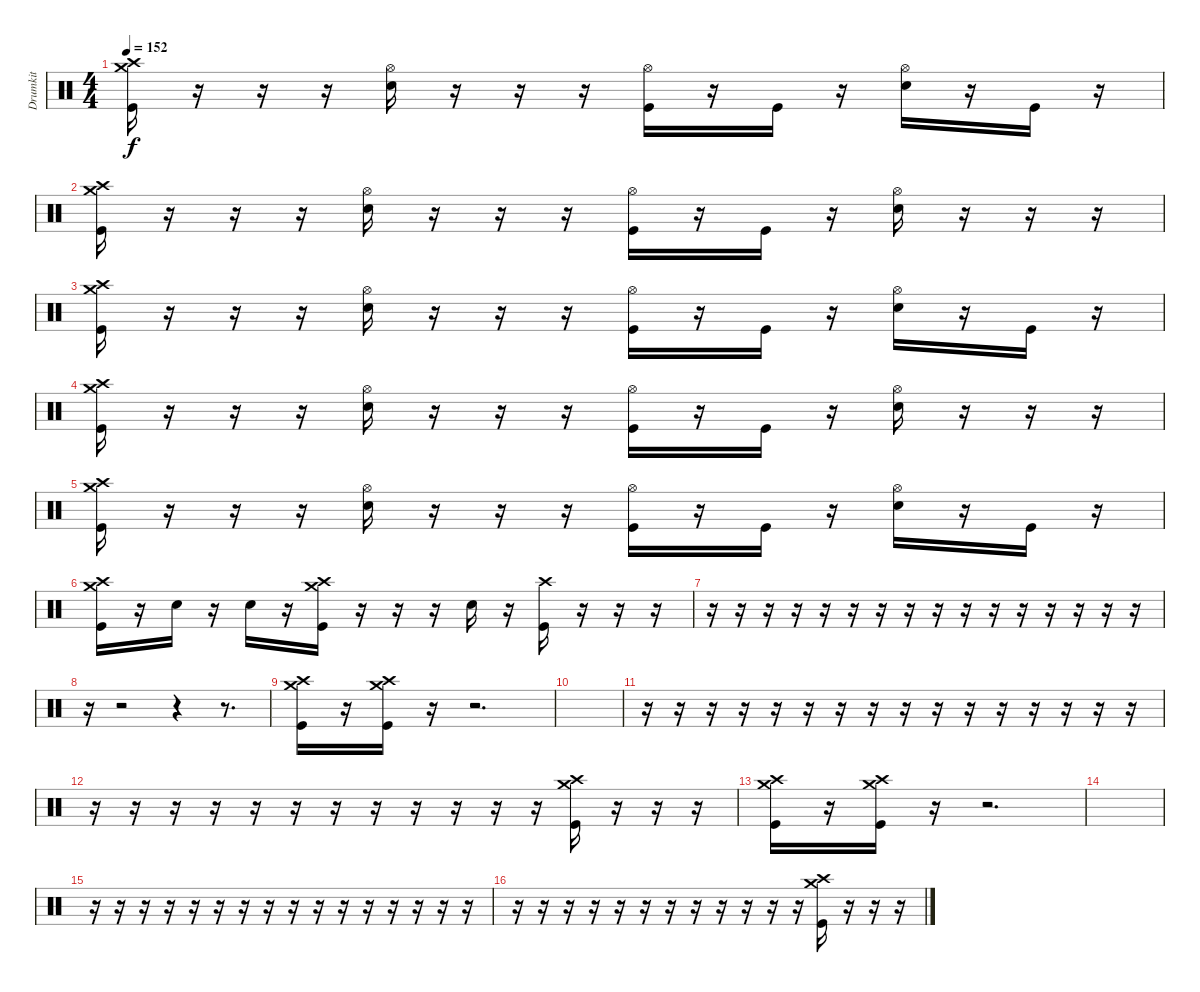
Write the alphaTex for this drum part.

\track ("Drumkit" "Drumkit") {instrument percussion}
\staff {score}
\articulation defaults
\ts (4 4)
\tempo 152
\clef neutral
\ks c
("Crash high (hit)" "Crash medium (hit)" "Kick (hit)").16{dy f} r.16 r.16 r.16 ("Hi-Hat (open)" "Snare (hit) 2").16 r.16 r.16 r.16 ("Hi-Hat (open)" "Kick (hit)").16 r.16 "Kick (hit)".16 r.16 ("Hi-Hat (open)" "Snare (hit) 2").16 r.16 "Kick (hit)".16 r.16 |
("Crash high (hit)" "Crash medium (hit)" "Kick (hit)").16 r.16 r.16 r.16 ("Hi-Hat (open)" "Snare (hit) 2").16 r.16 r.16 r.16 ("Hi-Hat (open)" "Kick (hit)").16 r.16 "Kick (hit)".16 r.16 ("Hi-Hat (open)" "Snare (hit) 2").16 r.16 r.16 r.16 |
("Crash high (hit)" "Crash medium (hit)" "Kick (hit)").16 r.16 r.16 r.16 ("Hi-Hat (open)" "Snare (hit) 2").16 r.16 r.16 r.16 ("Hi-Hat (open)" "Kick (hit)").16 r.16 "Kick (hit)".16 r.16 ("Hi-Hat (open)" "Snare (hit) 2").16 r.16 "Kick (hit)".16 r.16 |
("Crash high (hit)" "Crash medium (hit)" "Kick (hit)").16 r.16 r.16 r.16 ("Hi-Hat (open)" "Snare (hit) 2").16 r.16 r.16 r.16 ("Hi-Hat (open)" "Kick (hit)").16 r.16 "Kick (hit)".16 r.16 ("Hi-Hat (open)" "Snare (hit) 2").16 r.16 r.16 r.16 |
("Crash high (hit)" "Crash medium (hit)" "Kick (hit)").16 r.16 r.16 r.16 ("Hi-Hat (open)" "Snare (hit) 2").16 r.16 r.16 r.16 ("Hi-Hat (open)" "Kick (hit)").16 r.16 "Kick (hit)".16 r.16 ("Hi-Hat (open)" "Snare (hit) 2").16 r.16 "Kick (hit)".16 r.16 |
("Crash high (hit)" "Crash medium (hit)" "Kick (hit)").16 r.16 "Snare (hit) 2".16 r.16 "Snare (hit) 2".16 r.16 ("Crash high (hit)" "Crash medium (hit)" "Kick (hit)").16 r.16 r.16 r.16 "Snare (hit) 2".16 r.16 ("Crash high (hit)" "Kick (hit)").16 r.16 r.16 r.16 |
r.16 r.16 r.16 r.16 r.16 r.16 r.16 r.16 r.16 r.16 r.16 r.16 r.16 r.16 r.16 r.16 |
r.16 r.2 r.4 r.8{d} |
("Crash high (hit)" "Crash medium (hit)" "Kick (hit)").16 r.16 ("Crash high (hit)" "Crash medium (hit)" "Kick (hit)").16 r.16 r.2{d} |
|
r.16 r.16 r.16 r.16 r.16 r.16 r.16 r.16 r.16 r.16 r.16 r.16 r.16 r.16 r.16 r.16 |
r.16 r.16 r.16 r.16 r.16 r.16 r.16 r.16 r.16 r.16 r.16 r.16 ("Crash high (hit)" "Crash medium (hit)" "Kick (hit)").16 r.16 r.16 r.16 |
("Crash high (hit)" "Crash medium (hit)" "Kick (hit)").16 r.16 ("Crash high (hit)" "Crash medium (hit)" "Kick (hit)").16 r.16 r.2{d} |
|
r.16 r.16 r.16 r.16 r.16 r.16 r.16 r.16 r.16 r.16 r.16 r.16 r.16 r.16 r.16 r.16 |
r.16 r.16 r.16 r.16 r.16 r.16 r.16 r.16 r.16 r.16 r.16 r.16 ("Crash high (hit)" "Crash medium (hit)" "Kick (hit)").16 r.16 r.16 r.16
